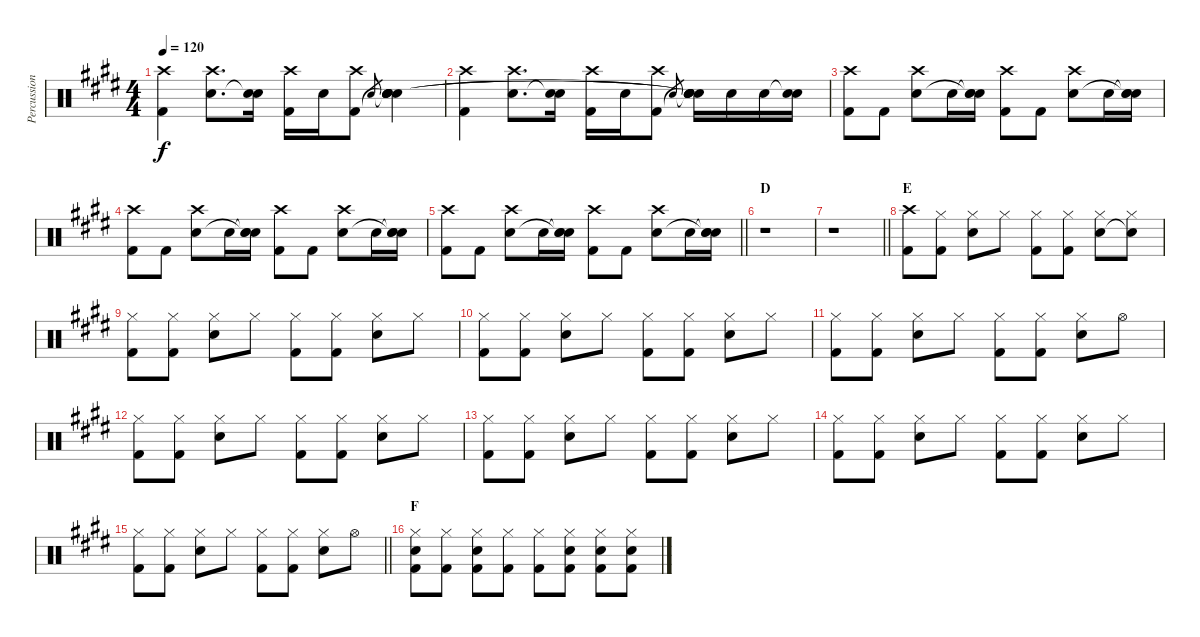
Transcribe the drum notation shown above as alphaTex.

\track ("Percussion" "Percussion") {instrument percussion}
\staff {score}
\articulation defaults
\ts (4 4)
\tempo 120
\clef neutral
\ks e
("Crash high (hit)" "Kick (hit) 2").4{dy f} ("Crash high (hit)" "Electric Snare (hit)").8{d} ("Electric Snare (hit)" "Snare (hit)"{t}).16 ("Crash high (hit)" "Kick (hit) 2").16 "Electric Snare (hit)".16 ("Crash high (hit)" "Kick (hit) 2").8 "Electric Snare (hit)".8{gr} ("Snare (hit)"{t} "Snare (hit)"{t} "Snare (hit)"{t} "Snare (hit)"{t} "Electric Snare (hit)").4 |
("Crash high (hit)" "Kick (hit) 2").4 ("Crash high (hit)" "Electric Snare (hit)").8{d} ("Electric Snare (hit)" "Snare (hit)"{t}).16 ("Crash high (hit)" "Kick (hit) 2").16 "Electric Snare (hit)".16 ("Crash high (hit)" "Kick (hit) 2").8 "Electric Snare (hit)".8{gr} ("Snare (hit)"{t} "Snare (hit)"{t} "Snare (hit)"{t} "Snare (hit)"{t} "Electric Snare (hit)").16 "Electric Snare (hit)".16 "Electric Snare (hit)".16 ("Snare (hit)"{t} "Electric Snare (hit)").16 |
("Crash high (hit)" "Kick (hit) 2").8 "Kick (hit) 2".8 ("Crash high (hit)" "Electric Snare (hit)").8 "Electric Snare (hit)".16 ("Snare (hit)"{t} "Snare (hit)"{t} "Electric Snare (hit)").16 ("Crash high (hit)" "Kick (hit) 2").8 "Kick (hit) 2".8 ("Crash high (hit)" "Electric Snare (hit)").8 "Electric Snare (hit)".16 ("Snare (hit)"{t} "Snare (hit)"{t} "Electric Snare (hit)").16 |
("Crash high (hit)" "Kick (hit) 2").8 "Kick (hit) 2".8 ("Crash high (hit)" "Electric Snare (hit)").8 "Electric Snare (hit)".16 ("Snare (hit)"{t} "Snare (hit)"{t} "Electric Snare (hit)").16 ("Crash high (hit)" "Kick (hit) 2").8 "Kick (hit) 2".8 ("Crash high (hit)" "Electric Snare (hit)").8 "Electric Snare (hit)".16 ("Snare (hit)"{t} "Snare (hit)"{t} "Electric Snare (hit)").16 |
\barLineRight lightlight
("Crash high (hit)" "Kick (hit) 2").8 "Kick (hit) 2".8 ("Crash high (hit)" "Electric Snare (hit)").8 "Electric Snare (hit)".16 ("Snare (hit)"{t} "Snare (hit)"{t} "Electric Snare (hit)").16 ("Crash high (hit)" "Kick (hit) 2").8 "Kick (hit) 2".8 ("Crash high (hit)" "Electric Snare (hit)").8 "Electric Snare (hit)".16 ("Snare (hit)"{t} "Snare (hit)"{t} "Electric Snare (hit)").16 |
\section ("" "D")
r.1 |
\barLineRight lightlight
r.1 |
\section ("" "E")
("Kick (hit) 2" "Crash high (hit)").8 ("Hi-Hat (closed)" "Kick (hit) 2").8 ("Hi-Hat (closed)" "Electric Snare (hit)").8 "Hi-Hat (closed)".8 ("Hi-Hat (closed)" "Kick (hit) 2").8 ("Hi-Hat (closed)" "Kick (hit) 2").8 ("Hi-Hat (closed)" "Electric Snare (hit)").8 ("Hi-Hat (closed)" "Snare (hit)"{t}).8 |
("Hi-Hat (closed)" "Kick (hit) 2").8 ("Hi-Hat (closed)" "Kick (hit) 2").8 ("Hi-Hat (closed)" "Electric Snare (hit)").8 "Hi-Hat (closed)".8 ("Hi-Hat (closed)" "Kick (hit) 2").8 ("Hi-Hat (closed)" "Kick (hit) 2").8 ("Hi-Hat (closed)" "Electric Snare (hit)").8 "Hi-Hat (closed)".8 |
("Hi-Hat (closed)" "Kick (hit) 2").8 ("Hi-Hat (closed)" "Kick (hit) 2").8 ("Hi-Hat (closed)" "Electric Snare (hit)").8 "Hi-Hat (closed)".8 ("Hi-Hat (closed)" "Kick (hit) 2").8 ("Hi-Hat (closed)" "Kick (hit) 2").8 ("Hi-Hat (closed)" "Electric Snare (hit)").8 "Hi-Hat (closed)".8 |
("Hi-Hat (closed)" "Kick (hit) 2").8 ("Hi-Hat (closed)" "Kick (hit) 2").8 ("Hi-Hat (closed)" "Electric Snare (hit)").8 "Hi-Hat (closed)".8 ("Hi-Hat (closed)" "Kick (hit) 2").8 ("Hi-Hat (closed)" "Kick (hit) 2").8 ("Hi-Hat (closed)" "Electric Snare (hit)").8 "Hi-Hat (open)".8 |
("Hi-Hat (closed)" "Kick (hit) 2").8 ("Hi-Hat (closed)" "Kick (hit) 2").8 ("Hi-Hat (closed)" "Electric Snare (hit)").8 "Hi-Hat (closed)".8 ("Hi-Hat (closed)" "Kick (hit) 2").8 ("Hi-Hat (closed)" "Kick (hit) 2").8 ("Hi-Hat (closed)" "Electric Snare (hit)").8 "Hi-Hat (closed)".8 |
("Hi-Hat (closed)" "Kick (hit) 2").8 ("Hi-Hat (closed)" "Kick (hit) 2").8 ("Hi-Hat (closed)" "Electric Snare (hit)").8 "Hi-Hat (closed)".8 ("Hi-Hat (closed)" "Kick (hit) 2").8 ("Hi-Hat (closed)" "Kick (hit) 2").8 ("Hi-Hat (closed)" "Electric Snare (hit)").8 "Hi-Hat (closed)".8 |
("Hi-Hat (closed)" "Kick (hit) 2").8 ("Hi-Hat (closed)" "Kick (hit) 2").8 ("Hi-Hat (closed)" "Electric Snare (hit)").8 "Hi-Hat (closed)".8 ("Hi-Hat (closed)" "Kick (hit) 2").8 ("Hi-Hat (closed)" "Kick (hit) 2").8 ("Hi-Hat (closed)" "Electric Snare (hit)").8 "Hi-Hat (closed)".8 |
\barLineRight lightlight
("Hi-Hat (closed)" "Kick (hit) 2").8 ("Hi-Hat (closed)" "Kick (hit) 2").8 ("Hi-Hat (closed)" "Electric Snare (hit)").8 "Hi-Hat (closed)".8 ("Hi-Hat (closed)" "Kick (hit) 2").8 ("Hi-Hat (closed)" "Kick (hit) 2").8 ("Hi-Hat (closed)" "Electric Snare (hit)").8 "Hi-Hat (open)".8 |
\section ("" "F")
("Hi-Hat (closed)" "Electric Snare (hit)" "Kick (hit) 2").8 ("Hi-Hat (closed)" "Kick (hit) 2").8 ("Hi-Hat (closed)" "Electric Snare (hit)" "Kick (hit) 2").8 ("Hi-Hat (closed)" "Kick (hit) 2").8 ("Hi-Hat (closed)" "Kick (hit) 2").8 ("Hi-Hat (closed)" "Electric Snare (hit)" "Kick (hit) 2").8 ("Hi-Hat (closed)" "Electric Snare (hit)" "Kick (hit) 2").8 ("Hi-Hat (closed)" "Electric Snare (hit)" "Kick (hit) 2").8
